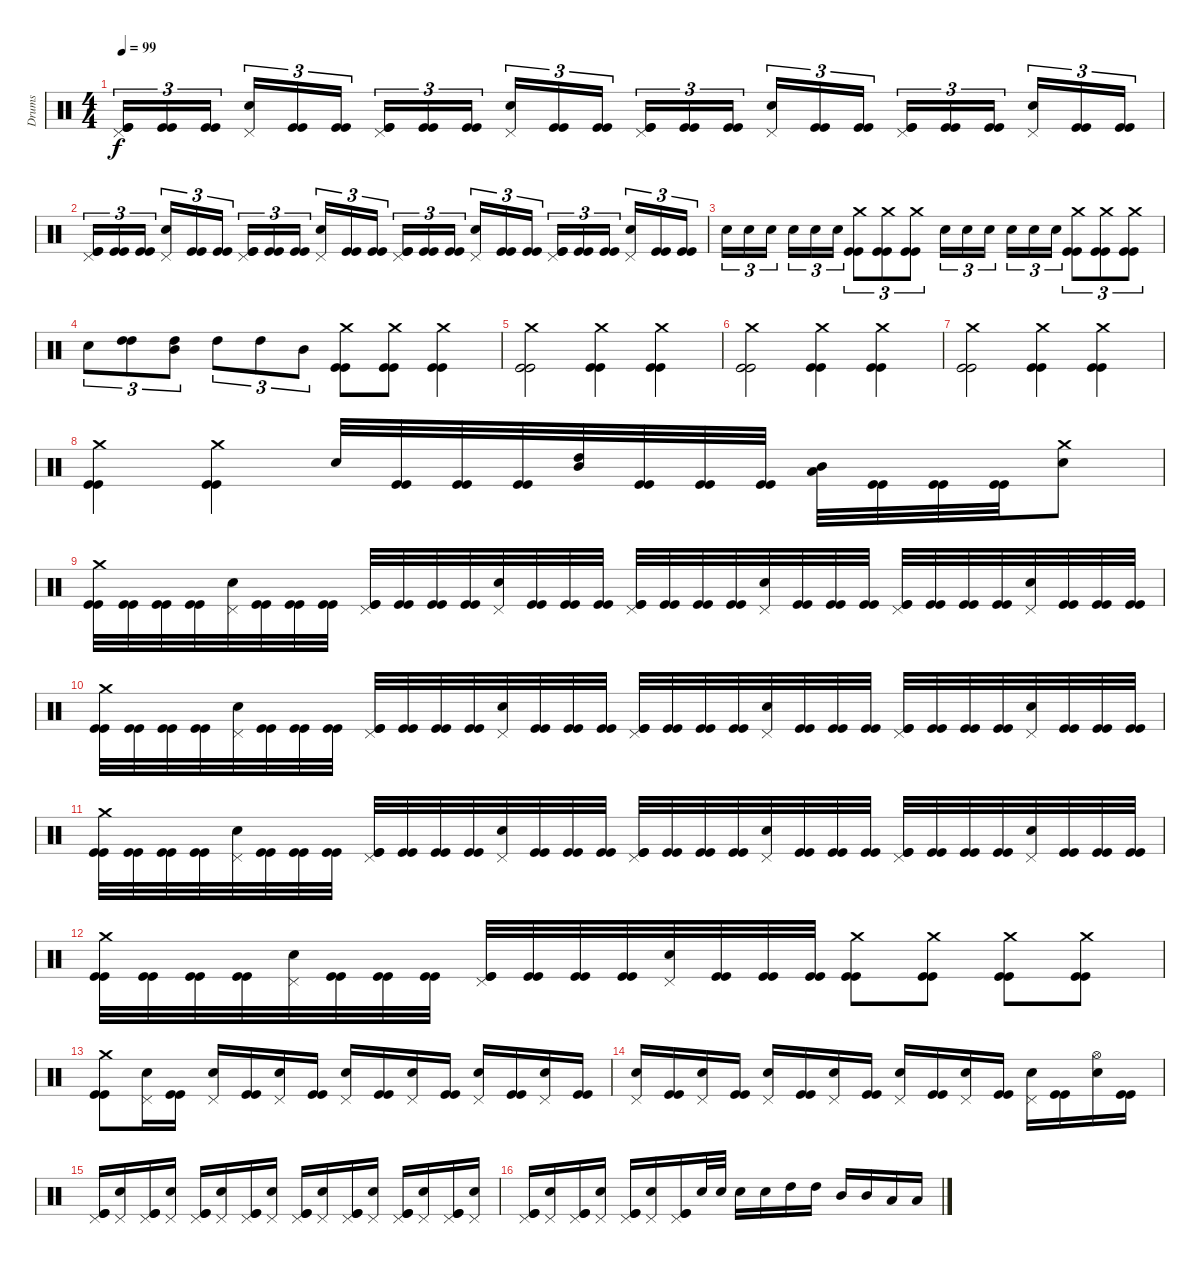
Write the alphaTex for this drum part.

\track ("Drums" "Drums") {instrument percussion}
\staff {score}
\articulation defaults
\ts (4 4)
\tempo 99
\clef neutral
\ks c
("Pedal Hi-Hat (hit)" "Kick (hit)" "Kick (hit)").16{tu (3 2) dy f} ("Kick (hit)" "Kick (hit)").16{tu (3 2)} ("Kick (hit)" "Kick (hit)").16{tu (3 2)} ("Pedal Hi-Hat (hit)" "Snare (hit) 2").16{tu (3 2)} ("Kick (hit)" "Kick (hit)").16{tu (3 2)} ("Kick (hit)" "Kick (hit)").16{tu (3 2)} ("Pedal Hi-Hat (hit)" "Kick (hit)" "Kick (hit)").16{tu (3 2)} ("Kick (hit)" "Kick (hit)").16{tu (3 2)} ("Kick (hit)" "Kick (hit)").16{tu (3 2)} ("Pedal Hi-Hat (hit)" "Snare (hit) 2").16{tu (3 2)} ("Kick (hit)" "Kick (hit)").16{tu (3 2)} ("Kick (hit)" "Kick (hit)").16{tu (3 2)} ("Pedal Hi-Hat (hit)" "Kick (hit)" "Kick (hit)").16{tu (3 2)} ("Kick (hit)" "Kick (hit)").16{tu (3 2)} ("Kick (hit)" "Kick (hit)").16{tu (3 2)} ("Pedal Hi-Hat (hit)" "Snare (hit) 2").16{tu (3 2)} ("Kick (hit)" "Kick (hit)").16{tu (3 2)} ("Kick (hit)" "Kick (hit)").16{tu (3 2)} ("Pedal Hi-Hat (hit)" "Kick (hit)" "Kick (hit)").16{tu (3 2)} ("Kick (hit)" "Kick (hit)").16{tu (3 2)} ("Kick (hit)" "Kick (hit)").16{tu (3 2)} ("Pedal Hi-Hat (hit)" "Snare (hit) 2").16{tu (3 2)} ("Kick (hit)" "Kick (hit)").16{tu (3 2)} ("Kick (hit)" "Kick (hit)").16{tu (3 2)} |
("Pedal Hi-Hat (hit)" "Kick (hit)" "Kick (hit)").16{tu (3 2)} ("Kick (hit)" "Kick (hit)").16{tu (3 2)} ("Kick (hit)" "Kick (hit)").16{tu (3 2)} ("Pedal Hi-Hat (hit)" "Snare (hit) 2").16{tu (3 2)} ("Kick (hit)" "Kick (hit)").16{tu (3 2)} ("Kick (hit)" "Kick (hit)").16{tu (3 2)} ("Pedal Hi-Hat (hit)" "Kick (hit)" "Kick (hit)").16{tu (3 2)} ("Kick (hit)" "Kick (hit)").16{tu (3 2)} ("Kick (hit)" "Kick (hit)").16{tu (3 2)} ("Pedal Hi-Hat (hit)" "Snare (hit) 2").16{tu (3 2)} ("Kick (hit)" "Kick (hit)").16{tu (3 2)} ("Kick (hit)" "Kick (hit)").16{tu (3 2)} ("Pedal Hi-Hat (hit)" "Kick (hit)" "Kick (hit)").16{tu (3 2)} ("Kick (hit)" "Kick (hit)").16{tu (3 2)} ("Kick (hit)" "Kick (hit)").16{tu (3 2)} ("Pedal Hi-Hat (hit)" "Snare (hit) 2").16{tu (3 2)} ("Kick (hit)" "Kick (hit)").16{tu (3 2)} ("Kick (hit)" "Kick (hit)").16{tu (3 2)} ("Pedal Hi-Hat (hit)" "Kick (hit)" "Kick (hit)").16{tu (3 2)} ("Kick (hit)" "Kick (hit)").16{tu (3 2)} ("Kick (hit)" "Kick (hit)").16{tu (3 2)} ("Pedal Hi-Hat (hit)" "Snare (hit) 2").16{tu (3 2)} ("Kick (hit)" "Kick (hit)").16{tu (3 2)} ("Kick (hit)" "Kick (hit)").16{tu (3 2)} |
"Snare (hit) 2".16{tu (3 2)} "Snare (hit) 2".16{tu (3 2)} "Snare (hit) 2".16{tu (3 2)} "Snare (hit) 2".16{tu (3 2)} "Snare (hit) 2".16{tu (3 2)} "Snare (hit) 2".16{tu (3 2)} ("Crash medium (hit)" "Kick (hit)" "Kick (hit)").8{tu (3 2)} ("Crash medium (hit)" "Kick (hit)" "Kick (hit)").8{tu (3 2)} ("Crash medium (hit)" "Kick (hit)" "Kick (hit)").8{tu (3 2)} "Snare (hit) 2".16{tu (3 2)} "Snare (hit) 2".16{tu (3 2)} "Snare (hit) 2".16{tu (3 2)} "Snare (hit) 2".16{tu (3 2)} "Snare (hit) 2".16{tu (3 2)} "Snare (hit) 2".16{tu (3 2)} ("Crash medium (hit)" "Kick (hit)" "Kick (hit)").8{tu (3 2)} ("Crash medium (hit)" "Kick (hit)" "Kick (hit)").8{tu (3 2)} ("Crash medium (hit)" "Kick (hit)" "Kick (hit)").8{tu (3 2)} |
"Snare (hit) 2".8{tu (3 2)} ("High Tom (hit)" "High Tom (hit)").8{tu (3 2)} ("High Tom (hit)" "Mid Tom (hit)").8{tu (3 2)} "High Tom (hit)".8{tu (3 2)} "High Tom (hit)".8{tu (3 2)} "Mid Tom (hit)".8{tu (3 2)} ("Crash medium (hit)" "Kick (hit)" "Kick (hit)").8 ("Crash medium (hit)" "Kick (hit)" "Kick (hit)").8 ("Crash medium (hit)" "Kick (hit)" "Kick (hit)").4 |
("Crash medium (hit)" "Kick (hit)" "Kick (hit)").2 ("Crash medium (hit)" "Kick (hit)" "Kick (hit)").4 ("Crash medium (hit)" "Kick (hit)" "Kick (hit)").4 |
("Crash medium (hit)" "Kick (hit)" "Kick (hit)").2 ("Crash medium (hit)" "Kick (hit)" "Kick (hit)").4 ("Crash medium (hit)" "Kick (hit)" "Kick (hit)").4 |
("Crash medium (hit)" "Kick (hit)" "Kick (hit)").2 ("Crash medium (hit)" "Kick (hit)" "Kick (hit)").4 ("Crash medium (hit)" "Kick (hit)" "Kick (hit)").4 |
("Crash medium (hit)" "Kick (hit)" "Kick (hit)").4 ("Crash medium (hit)" "Kick (hit)" "Kick (hit)").4 "Snare (hit) 2".32 ("Kick (hit)" "Kick (hit)").32 ("Kick (hit)" "Kick (hit)").32 ("Kick (hit)" "Kick (hit)").32 ("High Tom (hit)" "Mid Tom (hit)").32 ("Kick (hit)" "Kick (hit)").32 ("Kick (hit)" "Kick (hit)").32 ("Kick (hit)" "Kick (hit)").32 ("Mid Tom (hit)" "Low Tom (hit)").32 ("Kick (hit)" "Kick (hit)").32 ("Kick (hit)" "Kick (hit)").32 ("Kick (hit)" "Kick (hit)").32 ("Crash medium (hit)" "Snare (hit) 2").8 |
("Crash medium (hit)" "Kick (hit)" "Kick (hit)").32 ("Kick (hit)" "Kick (hit)").32 ("Kick (hit)" "Kick (hit)").32 ("Kick (hit)" "Kick (hit)").32 ("Pedal Hi-Hat (hit)" "Snare (hit) 2").32 ("Kick (hit)" "Kick (hit)").32 ("Kick (hit)" "Kick (hit)").32 ("Kick (hit)" "Kick (hit)").32 ("Pedal Hi-Hat (hit)" "Kick (hit)" "Kick (hit)").32 ("Kick (hit)" "Kick (hit)").32 ("Kick (hit)" "Kick (hit)").32 ("Kick (hit)" "Kick (hit)").32 ("Pedal Hi-Hat (hit)" "Snare (hit) 2").32 ("Kick (hit)" "Kick (hit)").32 ("Kick (hit)" "Kick (hit)").32 ("Kick (hit)" "Kick (hit)").32 ("Pedal Hi-Hat (hit)" "Kick (hit)" "Kick (hit)").32 ("Kick (hit)" "Kick (hit)").32 ("Kick (hit)" "Kick (hit)").32 ("Kick (hit)" "Kick (hit)").32 ("Pedal Hi-Hat (hit)" "Snare (hit) 2").32 ("Kick (hit)" "Kick (hit)").32 ("Kick (hit)" "Kick (hit)").32 ("Kick (hit)" "Kick (hit)").32 ("Pedal Hi-Hat (hit)" "Kick (hit)" "Kick (hit)").32 ("Kick (hit)" "Kick (hit)").32 ("Kick (hit)" "Kick (hit)").32 ("Kick (hit)" "Kick (hit)").32 ("Pedal Hi-Hat (hit)" "Snare (hit) 2").32 ("Kick (hit)" "Kick (hit)").32 ("Kick (hit)" "Kick (hit)").32 ("Kick (hit)" "Kick (hit)").32 |
("Crash medium (hit)" "Kick (hit)" "Kick (hit)").32 ("Kick (hit)" "Kick (hit)").32 ("Kick (hit)" "Kick (hit)").32 ("Kick (hit)" "Kick (hit)").32 ("Pedal Hi-Hat (hit)" "Snare (hit) 2").32 ("Kick (hit)" "Kick (hit)").32 ("Kick (hit)" "Kick (hit)").32 ("Kick (hit)" "Kick (hit)").32 ("Pedal Hi-Hat (hit)" "Kick (hit)" "Kick (hit)").32 ("Kick (hit)" "Kick (hit)").32 ("Kick (hit)" "Kick (hit)").32 ("Kick (hit)" "Kick (hit)").32 ("Pedal Hi-Hat (hit)" "Snare (hit) 2").32 ("Kick (hit)" "Kick (hit)").32 ("Kick (hit)" "Kick (hit)").32 ("Kick (hit)" "Kick (hit)").32 ("Pedal Hi-Hat (hit)" "Kick (hit)" "Kick (hit)").32 ("Kick (hit)" "Kick (hit)").32 ("Kick (hit)" "Kick (hit)").32 ("Kick (hit)" "Kick (hit)").32 ("Pedal Hi-Hat (hit)" "Snare (hit) 2").32 ("Kick (hit)" "Kick (hit)").32 ("Kick (hit)" "Kick (hit)").32 ("Kick (hit)" "Kick (hit)").32 ("Pedal Hi-Hat (hit)" "Kick (hit)" "Kick (hit)").32 ("Kick (hit)" "Kick (hit)").32 ("Kick (hit)" "Kick (hit)").32 ("Kick (hit)" "Kick (hit)").32 ("Pedal Hi-Hat (hit)" "Snare (hit) 2").32 ("Kick (hit)" "Kick (hit)").32 ("Kick (hit)" "Kick (hit)").32 ("Kick (hit)" "Kick (hit)").32 |
("Crash medium (hit)" "Kick (hit)" "Kick (hit)").32 ("Kick (hit)" "Kick (hit)").32 ("Kick (hit)" "Kick (hit)").32 ("Kick (hit)" "Kick (hit)").32 ("Pedal Hi-Hat (hit)" "Snare (hit) 2").32 ("Kick (hit)" "Kick (hit)").32 ("Kick (hit)" "Kick (hit)").32 ("Kick (hit)" "Kick (hit)").32 ("Pedal Hi-Hat (hit)" "Kick (hit)" "Kick (hit)").32 ("Kick (hit)" "Kick (hit)").32 ("Kick (hit)" "Kick (hit)").32 ("Kick (hit)" "Kick (hit)").32 ("Pedal Hi-Hat (hit)" "Snare (hit) 2").32 ("Kick (hit)" "Kick (hit)").32 ("Kick (hit)" "Kick (hit)").32 ("Kick (hit)" "Kick (hit)").32 ("Pedal Hi-Hat (hit)" "Kick (hit)" "Kick (hit)").32 ("Kick (hit)" "Kick (hit)").32 ("Kick (hit)" "Kick (hit)").32 ("Kick (hit)" "Kick (hit)").32 ("Pedal Hi-Hat (hit)" "Snare (hit) 2").32 ("Kick (hit)" "Kick (hit)").32 ("Kick (hit)" "Kick (hit)").32 ("Kick (hit)" "Kick (hit)").32 ("Pedal Hi-Hat (hit)" "Kick (hit)" "Kick (hit)").32 ("Kick (hit)" "Kick (hit)").32 ("Kick (hit)" "Kick (hit)").32 ("Kick (hit)" "Kick (hit)").32 ("Pedal Hi-Hat (hit)" "Snare (hit) 2").32 ("Kick (hit)" "Kick (hit)").32 ("Kick (hit)" "Kick (hit)").32 ("Kick (hit)" "Kick (hit)").32 |
("Crash medium (hit)" "Kick (hit)" "Kick (hit)").32 ("Kick (hit)" "Kick (hit)").32 ("Kick (hit)" "Kick (hit)").32 ("Kick (hit)" "Kick (hit)").32 ("Pedal Hi-Hat (hit)" "Snare (hit) 2").32 ("Kick (hit)" "Kick (hit)").32 ("Kick (hit)" "Kick (hit)").32 ("Kick (hit)" "Kick (hit)").32 ("Pedal Hi-Hat (hit)" "Kick (hit)" "Kick (hit)").32 ("Kick (hit)" "Kick (hit)").32 ("Kick (hit)" "Kick (hit)").32 ("Kick (hit)" "Kick (hit)").32 ("Pedal Hi-Hat (hit)" "Snare (hit) 2").32 ("Kick (hit)" "Kick (hit)").32 ("Kick (hit)" "Kick (hit)").32 ("Kick (hit)" "Kick (hit)").32 ("Crash medium (hit)" "Kick (hit)" "Kick (hit)").8 ("Crash medium (hit)" "Kick (hit)" "Kick (hit)").8 ("Crash medium (hit)" "Kick (hit)" "Kick (hit)").8 ("Crash medium (hit)" "Kick (hit)" "Kick (hit)").8 |
("Crash medium (hit)" "Kick (hit)" "Kick (hit)").8 ("Pedal Hi-Hat (hit)" "Snare (hit) 2").16 ("Kick (hit)" "Kick (hit)").16 ("Pedal Hi-Hat (hit)" "Snare (hit) 2").16 ("Kick (hit)" "Kick (hit)").16 ("Pedal Hi-Hat (hit)" "Snare (hit) 2").16 ("Kick (hit)" "Kick (hit)").16 ("Pedal Hi-Hat (hit)" "Snare (hit) 2").16 ("Kick (hit)" "Kick (hit)").16 ("Pedal Hi-Hat (hit)" "Snare (hit) 2").16 ("Kick (hit)" "Kick (hit)").16 ("Pedal Hi-Hat (hit)" "Snare (hit) 2").16 ("Kick (hit)" "Kick (hit)").16 ("Pedal Hi-Hat (hit)" "Snare (hit) 2").16 ("Kick (hit)" "Kick (hit)").16 |
("Pedal Hi-Hat (hit)" "Snare (hit) 2").16 ("Kick (hit)" "Kick (hit)").16 ("Pedal Hi-Hat (hit)" "Snare (hit) 2").16 ("Kick (hit)" "Kick (hit)").16 ("Pedal Hi-Hat (hit)" "Snare (hit) 2").16 ("Kick (hit)" "Kick (hit)").16 ("Pedal Hi-Hat (hit)" "Snare (hit) 2").16 ("Kick (hit)" "Kick (hit)").16 ("Pedal Hi-Hat (hit)" "Snare (hit) 2").16 ("Kick (hit)" "Kick (hit)").16 ("Pedal Hi-Hat (hit)" "Snare (hit) 2").16 ("Kick (hit)" "Kick (hit)").16 ("Pedal Hi-Hat (hit)" "Snare (hit) 2").16 ("Kick (hit)" "Kick (hit)").16 ("Hi-Hat (open)" "Snare (hit) 2").16 ("Kick (hit)" "Kick (hit)").16 |
("Pedal Hi-Hat (hit)" "Kick (hit)" "Kick (hit)").16 ("Pedal Hi-Hat (hit)" "Snare (hit) 2").16 ("Pedal Hi-Hat (hit)" "Kick (hit)" "Kick (hit)").16 ("Pedal Hi-Hat (hit)" "Snare (hit) 2").16 ("Pedal Hi-Hat (hit)" "Kick (hit)" "Kick (hit)").16 ("Pedal Hi-Hat (hit)" "Snare (hit) 2").16 ("Pedal Hi-Hat (hit)" "Kick (hit)" "Kick (hit)").16 ("Pedal Hi-Hat (hit)" "Snare (hit) 2").16 ("Pedal Hi-Hat (hit)" "Kick (hit)" "Kick (hit)").16 ("Pedal Hi-Hat (hit)" "Snare (hit) 2").16 ("Pedal Hi-Hat (hit)" "Kick (hit)" "Kick (hit)").16 ("Pedal Hi-Hat (hit)" "Snare (hit) 2").16 ("Pedal Hi-Hat (hit)" "Kick (hit)" "Kick (hit)").16 ("Pedal Hi-Hat (hit)" "Snare (hit) 2").16 ("Pedal Hi-Hat (hit)" "Kick (hit)" "Kick (hit)").16 ("Pedal Hi-Hat (hit)" "Snare (hit) 2").16 |
("Pedal Hi-Hat (hit)" "Kick (hit)" "Kick (hit)").16 ("Pedal Hi-Hat (hit)" "Snare (hit) 2").16 ("Pedal Hi-Hat (hit)" "Kick (hit)" "Kick (hit)").16 ("Pedal Hi-Hat (hit)" "Snare (hit) 2").16 ("Pedal Hi-Hat (hit)" "Kick (hit)" "Kick (hit)").16 ("Pedal Hi-Hat (hit)" "Snare (hit) 2").16 ("Pedal Hi-Hat (hit)" "Kick (hit)" "Kick (hit)").16 "Snare (hit) 2".32 "Snare (hit) 2".32 "Snare (hit) 2".16 "Snare (hit) 2".16 "High Tom (hit)".16 "High Tom (hit)".16 "Mid Tom (hit)".16 "Mid Tom (hit)".16 "Low Tom (hit)".16 "Low Tom (hit)".16
